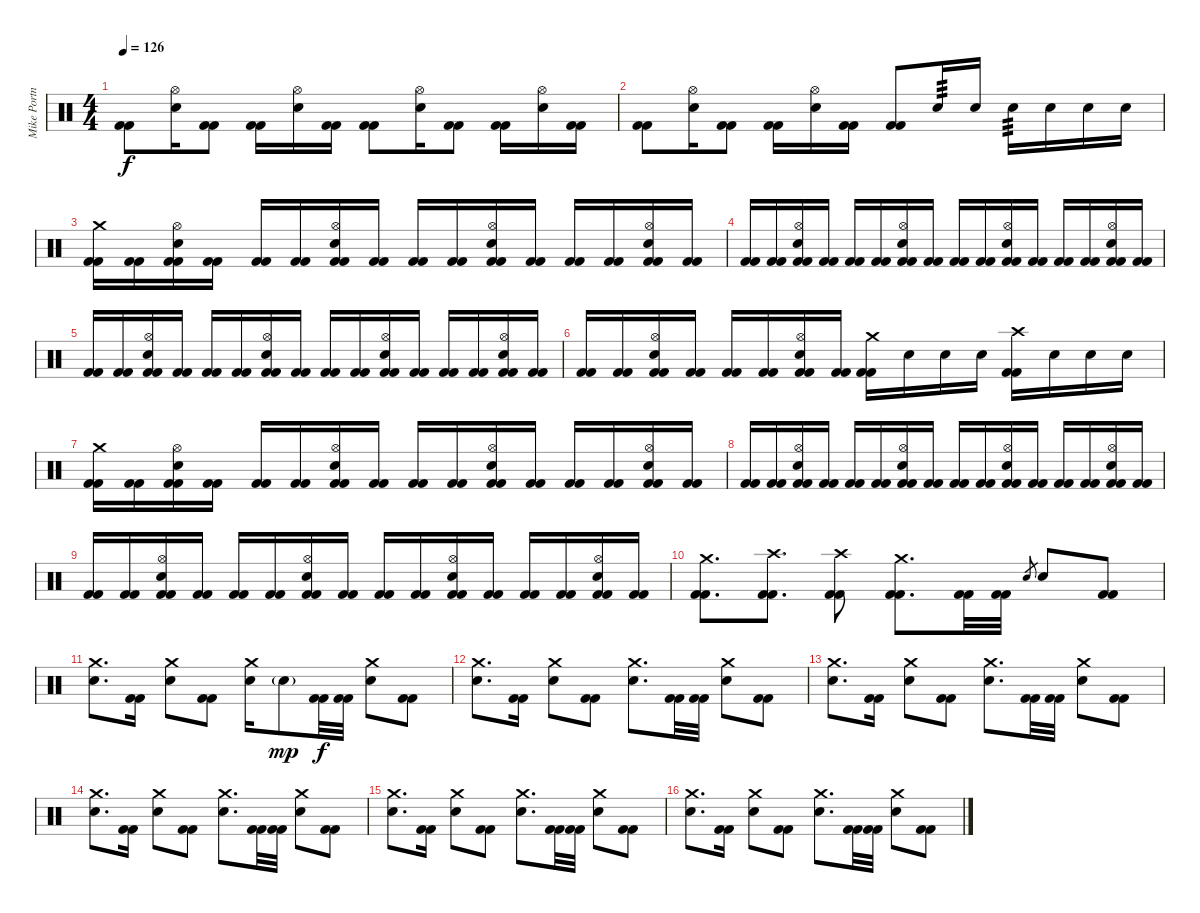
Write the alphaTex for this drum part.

\track ("Mike Portnoy" "Mike Portn") {instrument percussion}
\staff {score}
\articulation defaults
\ts (4 4)
\tempo 126
\clef neutral
\ks c
("Kick (hit) 2" "Kick (hit) 2").8{dy f} ("Hi-Hat (open)" "Electric Snare (hit)").16 ("Kick (hit) 2" "Kick (hit) 2").8 ("Kick (hit) 2" "Kick (hit) 2").16 ("Hi-Hat (open)" "Electric Snare (hit)").16 ("Kick (hit) 2" "Kick (hit) 2").16 ("Kick (hit) 2" "Kick (hit) 2").8 ("Hi-Hat (open)" "Electric Snare (hit)").16 ("Kick (hit) 2" "Kick (hit) 2").8 ("Kick (hit) 2" "Kick (hit) 2").16 ("Hi-Hat (open)" "Electric Snare (hit)").16 ("Kick (hit) 2" "Kick (hit) 2").16 |
("Kick (hit) 2" "Kick (hit) 2").8 ("Hi-Hat (open)" "Electric Snare (hit)").16 ("Kick (hit) 2" "Kick (hit) 2").8 ("Kick (hit) 2" "Kick (hit) 2").16 ("Hi-Hat (open)" "Electric Snare (hit)").16 ("Kick (hit) 2" "Kick (hit) 2").16 ("Kick (hit) 2" "Kick (hit) 2").8 "Electric Snare (hit)".16{tp 3} "Electric Snare (hit)".16 "Electric Snare (hit)".16{tp 3} "Electric Snare (hit)".16 "Electric Snare (hit)".16 "Electric Snare (hit)".16 |
("Crash medium (hit)" "Kick (hit) 2" "Kick (hit) 2").16 ("Kick (hit) 2" "Kick (hit) 2").16 ("Hi-Hat (open)" "Electric Snare (hit)" "Kick (hit) 2" "Kick (hit) 2").16 ("Kick (hit) 2" "Kick (hit) 2").16 ("Kick (hit) 2" "Kick (hit) 2").16 ("Kick (hit) 2" "Kick (hit) 2").16 ("Hi-Hat (open)" "Electric Snare (hit)" "Kick (hit) 2" "Kick (hit) 2").16 ("Kick (hit) 2" "Kick (hit) 2").16 ("Kick (hit) 2" "Kick (hit) 2").16 ("Kick (hit) 2" "Kick (hit) 2").16 ("Hi-Hat (open)" "Electric Snare (hit)" "Kick (hit) 2" "Kick (hit) 2").16 ("Kick (hit) 2" "Kick (hit) 2").16 ("Kick (hit) 2" "Kick (hit) 2").16 ("Kick (hit) 2" "Kick (hit) 2").16 ("Hi-Hat (open)" "Electric Snare (hit)" "Kick (hit) 2" "Kick (hit) 2").16 ("Kick (hit) 2" "Kick (hit) 2").16 |
("Kick (hit) 2" "Kick (hit) 2").16 ("Kick (hit) 2" "Kick (hit) 2").16 ("Hi-Hat (open)" "Electric Snare (hit)" "Kick (hit) 2" "Kick (hit) 2").16 ("Kick (hit) 2" "Kick (hit) 2").16 ("Kick (hit) 2" "Kick (hit) 2").16 ("Kick (hit) 2" "Kick (hit) 2").16 ("Hi-Hat (open)" "Electric Snare (hit)" "Kick (hit) 2" "Kick (hit) 2").16 ("Kick (hit) 2" "Kick (hit) 2").16 ("Kick (hit) 2" "Kick (hit) 2").16 ("Kick (hit) 2" "Kick (hit) 2").16 ("Hi-Hat (open)" "Electric Snare (hit)" "Kick (hit) 2" "Kick (hit) 2").16 ("Kick (hit) 2" "Kick (hit) 2").16 ("Kick (hit) 2" "Kick (hit) 2").16 ("Kick (hit) 2" "Kick (hit) 2").16 ("Hi-Hat (open)" "Electric Snare (hit)" "Kick (hit) 2" "Kick (hit) 2").16 ("Kick (hit) 2" "Kick (hit) 2").16 |
("Kick (hit) 2" "Kick (hit) 2").16 ("Kick (hit) 2" "Kick (hit) 2").16 ("Hi-Hat (open)" "Electric Snare (hit)" "Kick (hit) 2" "Kick (hit) 2").16 ("Kick (hit) 2" "Kick (hit) 2").16 ("Kick (hit) 2" "Kick (hit) 2").16 ("Kick (hit) 2" "Kick (hit) 2").16 ("Hi-Hat (open)" "Electric Snare (hit)" "Kick (hit) 2" "Kick (hit) 2").16 ("Kick (hit) 2" "Kick (hit) 2").16 ("Kick (hit) 2" "Kick (hit) 2").16 ("Kick (hit) 2" "Kick (hit) 2").16 ("Hi-Hat (open)" "Electric Snare (hit)" "Kick (hit) 2" "Kick (hit) 2").16 ("Kick (hit) 2" "Kick (hit) 2").16 ("Kick (hit) 2" "Kick (hit) 2").16 ("Kick (hit) 2" "Kick (hit) 2").16 ("Hi-Hat (open)" "Electric Snare (hit)" "Kick (hit) 2" "Kick (hit) 2").16 ("Kick (hit) 2" "Kick (hit) 2").16 |
("Kick (hit) 2" "Kick (hit) 2").16 ("Kick (hit) 2" "Kick (hit) 2").16 ("Hi-Hat (open)" "Electric Snare (hit)" "Kick (hit) 2" "Kick (hit) 2").16 ("Kick (hit) 2" "Kick (hit) 2").16 ("Kick (hit) 2" "Kick (hit) 2").16 ("Kick (hit) 2" "Kick (hit) 2").16 ("Hi-Hat (open)" "Electric Snare (hit)" "Kick (hit) 2" "Kick (hit) 2").16 ("Kick (hit) 2" "Kick (hit) 2").16 ("Crash medium (hit)" "Kick (hit) 2" "Kick (hit) 2").16 "Electric Snare (hit)".16 "Electric Snare (hit)".16 "Electric Snare (hit)".16 ("Crash high (hit)" "Kick (hit) 2" "Kick (hit) 2").16 "Electric Snare (hit)".16 "Electric Snare (hit)".16 "Electric Snare (hit)".16 |
("Crash medium (hit)" "Kick (hit) 2" "Kick (hit) 2").16 ("Kick (hit) 2" "Kick (hit) 2").16 ("Hi-Hat (open)" "Electric Snare (hit)" "Kick (hit) 2" "Kick (hit) 2").16 ("Kick (hit) 2" "Kick (hit) 2").16 ("Kick (hit) 2" "Kick (hit) 2").16 ("Kick (hit) 2" "Kick (hit) 2").16 ("Hi-Hat (open)" "Electric Snare (hit)" "Kick (hit) 2" "Kick (hit) 2").16 ("Kick (hit) 2" "Kick (hit) 2").16 ("Kick (hit) 2" "Kick (hit) 2").16 ("Kick (hit) 2" "Kick (hit) 2").16 ("Hi-Hat (open)" "Electric Snare (hit)" "Kick (hit) 2" "Kick (hit) 2").16 ("Kick (hit) 2" "Kick (hit) 2").16 ("Kick (hit) 2" "Kick (hit) 2").16 ("Kick (hit) 2" "Kick (hit) 2").16 ("Hi-Hat (open)" "Electric Snare (hit)" "Kick (hit) 2" "Kick (hit) 2").16 ("Kick (hit) 2" "Kick (hit) 2").16 |
("Kick (hit) 2" "Kick (hit) 2").16 ("Kick (hit) 2" "Kick (hit) 2").16 ("Hi-Hat (open)" "Electric Snare (hit)" "Kick (hit) 2" "Kick (hit) 2").16 ("Kick (hit) 2" "Kick (hit) 2").16 ("Kick (hit) 2" "Kick (hit) 2").16 ("Kick (hit) 2" "Kick (hit) 2").16 ("Hi-Hat (open)" "Electric Snare (hit)" "Kick (hit) 2" "Kick (hit) 2").16 ("Kick (hit) 2" "Kick (hit) 2").16 ("Kick (hit) 2" "Kick (hit) 2").16 ("Kick (hit) 2" "Kick (hit) 2").16 ("Hi-Hat (open)" "Electric Snare (hit)" "Kick (hit) 2" "Kick (hit) 2").16 ("Kick (hit) 2" "Kick (hit) 2").16 ("Kick (hit) 2" "Kick (hit) 2").16 ("Kick (hit) 2" "Kick (hit) 2").16 ("Hi-Hat (open)" "Electric Snare (hit)" "Kick (hit) 2" "Kick (hit) 2").16 ("Kick (hit) 2" "Kick (hit) 2").16 |
("Kick (hit) 2" "Kick (hit) 2").16 ("Kick (hit) 2" "Kick (hit) 2").16 ("Hi-Hat (open)" "Electric Snare (hit)" "Kick (hit) 2" "Kick (hit) 2").16 ("Kick (hit) 2" "Kick (hit) 2").16 ("Kick (hit) 2" "Kick (hit) 2").16 ("Kick (hit) 2" "Kick (hit) 2").16 ("Hi-Hat (open)" "Electric Snare (hit)" "Kick (hit) 2" "Kick (hit) 2").16 ("Kick (hit) 2" "Kick (hit) 2").16 ("Kick (hit) 2" "Kick (hit) 2").16 ("Kick (hit) 2" "Kick (hit) 2").16 ("Hi-Hat (open)" "Electric Snare (hit)" "Kick (hit) 2" "Kick (hit) 2").16 ("Kick (hit) 2" "Kick (hit) 2").16 ("Kick (hit) 2" "Kick (hit) 2").16 ("Kick (hit) 2" "Kick (hit) 2").16 ("Hi-Hat (open)" "Electric Snare (hit)" "Kick (hit) 2" "Kick (hit) 2").16 ("Kick (hit) 2" "Kick (hit) 2").16 |
("Crash medium (hit)" "Kick (hit) 2" "Kick (hit) 2").8{d} ("Crash high (hit)" "Kick (hit) 2" "Kick (hit) 2").8{d} ("Crash high (hit)" "Kick (hit) 2" "Kick (hit) 2").8 ("Crash medium (hit)" "Kick (hit) 2" "Kick (hit) 2").8{d} ("Kick (hit) 2" "Kick (hit) 2").32 ("Kick (hit) 2" "Kick (hit) 2").32 "Electric Snare (hit)".8{gr} "Electric Snare (hit)".8 ("Kick (hit) 2" "Kick (hit) 2").8 |
("Crash medium (hit)" "Electric Snare (hit)").8{d} ("Kick (hit) 2" "Kick (hit) 2").16 ("Crash medium (hit)" "Electric Snare (hit)").8 ("Kick (hit) 2" "Kick (hit) 2").8 ("Crash medium (hit)" "Electric Snare (hit)").16 "Electric Snare (hit)"{g}.8{dy mp} ("Kick (hit) 2" "Kick (hit) 2").32{dy f} ("Kick (hit) 2" "Kick (hit) 2").32 ("Crash medium (hit)" "Electric Snare (hit)").8 ("Kick (hit) 2" "Kick (hit) 2").8 |
("Crash medium (hit)" "Electric Snare (hit)").8{d} ("Kick (hit) 2" "Kick (hit) 2").16 ("Crash medium (hit)" "Electric Snare (hit)").8 ("Kick (hit) 2" "Kick (hit) 2").8 ("Crash medium (hit)" "Electric Snare (hit)").8{d} ("Kick (hit) 2" "Kick (hit) 2").32 ("Kick (hit) 2" "Kick (hit) 2").32 ("Crash medium (hit)" "Electric Snare (hit)").8 ("Kick (hit) 2" "Kick (hit) 2").8 |
("Crash medium (hit)" "Electric Snare (hit)").8{d} ("Kick (hit) 2" "Kick (hit) 2").16 ("Crash medium (hit)" "Electric Snare (hit)").8 ("Kick (hit) 2" "Kick (hit) 2").8 ("Crash medium (hit)" "Electric Snare (hit)").8{d} ("Kick (hit) 2" "Kick (hit) 2").32 ("Kick (hit) 2" "Kick (hit) 2").32 ("Crash medium (hit)" "Electric Snare (hit)").8 ("Kick (hit) 2" "Kick (hit) 2").8 |
("Crash medium (hit)" "Electric Snare (hit)").8{d} ("Kick (hit) 2" "Kick (hit) 2").16 ("Crash medium (hit)" "Electric Snare (hit)").8 ("Kick (hit) 2" "Kick (hit) 2").8 ("Crash medium (hit)" "Electric Snare (hit)").8{d} ("Kick (hit) 2" "Kick (hit) 2").32 ("Kick (hit) 2" "Kick (hit) 2").32 ("Crash medium (hit)" "Electric Snare (hit)").8 ("Kick (hit) 2" "Kick (hit) 2").8 |
("Crash medium (hit)" "Electric Snare (hit)").8{d} ("Kick (hit) 2" "Kick (hit) 2").16 ("Crash medium (hit)" "Electric Snare (hit)").8 ("Kick (hit) 2" "Kick (hit) 2").8 ("Crash medium (hit)" "Electric Snare (hit)").8{d} ("Kick (hit) 2" "Kick (hit) 2").32 ("Kick (hit) 2" "Kick (hit) 2").32 ("Crash medium (hit)" "Electric Snare (hit)").8 ("Kick (hit) 2" "Kick (hit) 2").8 |
("Crash medium (hit)" "Electric Snare (hit)").8{d} ("Kick (hit) 2" "Kick (hit) 2").16 ("Crash medium (hit)" "Electric Snare (hit)").8 ("Kick (hit) 2" "Kick (hit) 2").8 ("Crash medium (hit)" "Electric Snare (hit)").8{d} ("Kick (hit) 2" "Kick (hit) 2").32 ("Kick (hit) 2" "Kick (hit) 2").32 ("Crash medium (hit)" "Electric Snare (hit)").8 ("Kick (hit) 2" "Kick (hit) 2").8
